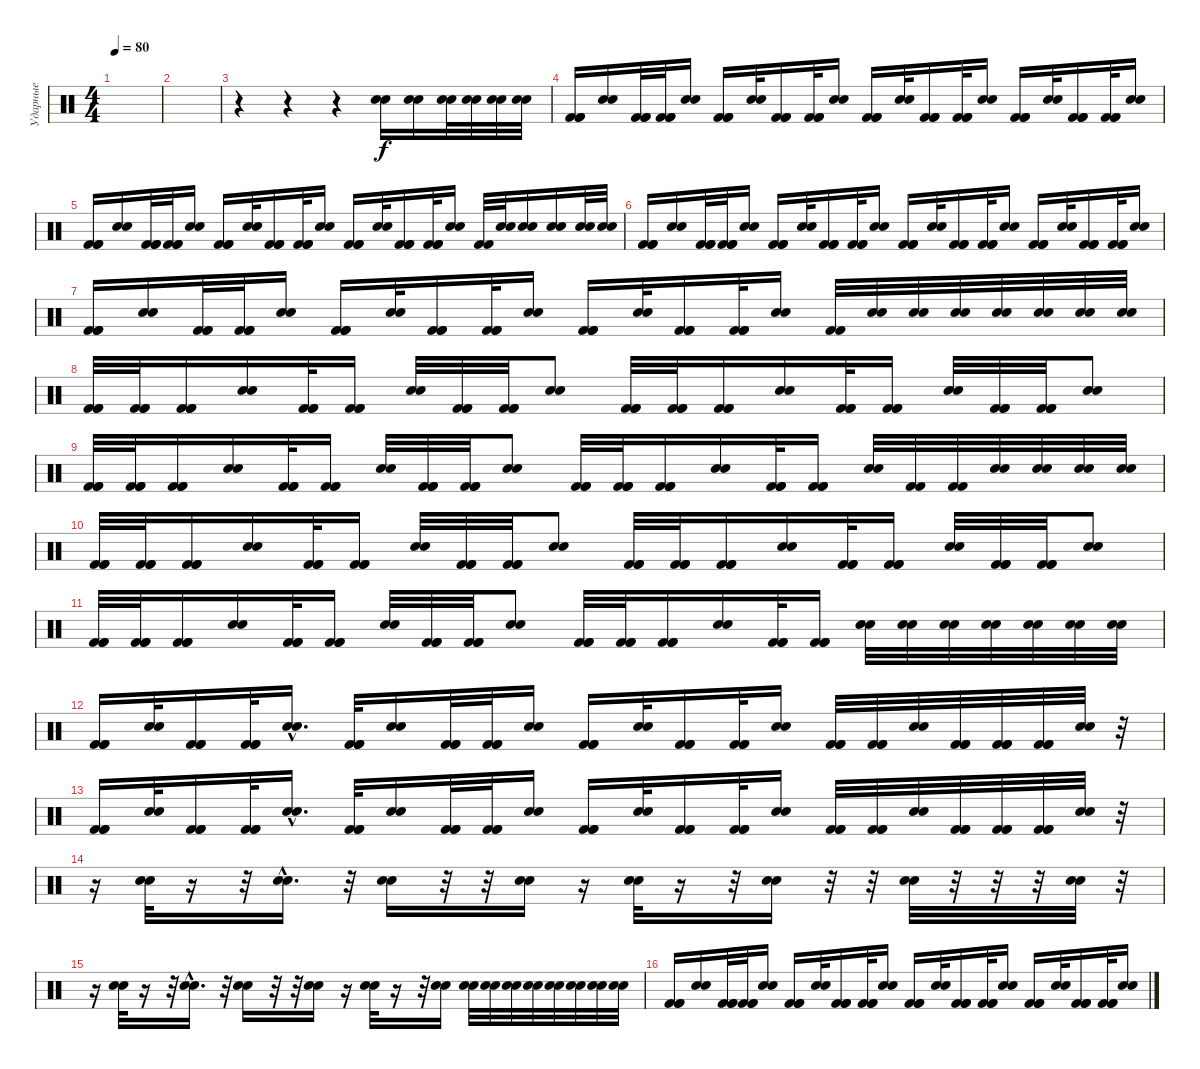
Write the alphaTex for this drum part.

\track ("Ударные" "Ударные") {instrument percussion}
\staff {score}
\articulation defaults
\ts (4 4)
\tempo 80
\clef neutral
\ks c
|
|
r.4 r.4 r.4 ("Snare (hit) 2" "Snare (hit) 2").16 ("Snare (hit) 2" "Snare (hit) 2").16 ("Snare (hit) 2" "Snare (hit) 2").32 ("Snare (hit) 2" "Snare (hit) 2").32 ("Snare (hit) 2" "Snare (hit) 2").32 ("Snare (hit) 2" "Snare (hit) 2").32 |
("Kick (hit) 2" "Kick (hit) 2" "Kick (hit) 2").16 ("Snare (hit) 2" "Snare (hit) 2").16 ("Kick (hit) 2" "Kick (hit) 2" "Kick (hit) 2").32 ("Kick (hit) 2" "Kick (hit) 2" "Kick (hit) 2").32 ("Snare (hit) 2" "Snare (hit) 2").16 ("Kick (hit) 2" "Kick (hit) 2" "Kick (hit) 2").16 ("Snare (hit) 2" "Snare (hit) 2").32 ("Kick (hit) 2" "Kick (hit) 2" "Kick (hit) 2").16 ("Kick (hit) 2" "Kick (hit) 2" "Kick (hit) 2").32 ("Snare (hit) 2" "Snare (hit) 2").16 ("Kick (hit) 2" "Kick (hit) 2" "Kick (hit) 2").16 ("Snare (hit) 2" "Snare (hit) 2").32 ("Kick (hit) 2" "Kick (hit) 2" "Kick (hit) 2").16 ("Kick (hit) 2" "Kick (hit) 2" "Kick (hit) 2").32 ("Snare (hit) 2" "Snare (hit) 2").16 ("Kick (hit) 2" "Kick (hit) 2" "Kick (hit) 2").16 ("Snare (hit) 2" "Snare (hit) 2").32 ("Kick (hit) 2" "Kick (hit) 2" "Kick (hit) 2").16 ("Kick (hit) 2" "Kick (hit) 2" "Kick (hit) 2").32 ("Snare (hit) 2" "Snare (hit) 2").16 |
("Kick (hit) 2" "Kick (hit) 2" "Kick (hit) 2").16 ("Snare (hit) 2" "Snare (hit) 2").16 ("Kick (hit) 2" "Kick (hit) 2" "Kick (hit) 2").32 ("Kick (hit) 2" "Kick (hit) 2" "Kick (hit) 2").32 ("Snare (hit) 2" "Snare (hit) 2").16 ("Kick (hit) 2" "Kick (hit) 2" "Kick (hit) 2").16 ("Snare (hit) 2" "Snare (hit) 2").32 ("Kick (hit) 2" "Kick (hit) 2" "Kick (hit) 2").16 ("Kick (hit) 2" "Kick (hit) 2" "Kick (hit) 2").32 ("Snare (hit) 2" "Snare (hit) 2").16 ("Kick (hit) 2" "Kick (hit) 2" "Kick (hit) 2").16 ("Snare (hit) 2" "Snare (hit) 2").32 ("Kick (hit) 2" "Kick (hit) 2" "Kick (hit) 2").16 ("Kick (hit) 2" "Kick (hit) 2" "Kick (hit) 2").32 ("Snare (hit) 2" "Snare (hit) 2").16 ("Kick (hit) 2" "Kick (hit) 2").32 ("Snare (hit) 2" "Snare (hit) 2").32 ("Snare (hit) 2" "Snare (hit) 2").16 ("Snare (hit) 2" "Snare (hit) 2").16 ("Snare (hit) 2" "Snare (hit) 2").32 ("Snare (hit) 2" "Snare (hit) 2").32 |
("Kick (hit) 2" "Kick (hit) 2" "Kick (hit) 2").16 ("Snare (hit) 2" "Snare (hit) 2").16 ("Kick (hit) 2" "Kick (hit) 2" "Kick (hit) 2").32 ("Kick (hit) 2" "Kick (hit) 2" "Kick (hit) 2").32 ("Snare (hit) 2" "Snare (hit) 2").16 ("Kick (hit) 2" "Kick (hit) 2" "Kick (hit) 2").16 ("Snare (hit) 2" "Snare (hit) 2").32 ("Kick (hit) 2" "Kick (hit) 2" "Kick (hit) 2").16 ("Kick (hit) 2" "Kick (hit) 2" "Kick (hit) 2").32 ("Snare (hit) 2" "Snare (hit) 2").16 ("Kick (hit) 2" "Kick (hit) 2" "Kick (hit) 2").16 ("Snare (hit) 2" "Snare (hit) 2").32 ("Kick (hit) 2" "Kick (hit) 2" "Kick (hit) 2").16 ("Kick (hit) 2" "Kick (hit) 2" "Kick (hit) 2").32 ("Snare (hit) 2" "Snare (hit) 2").16 ("Kick (hit) 2" "Kick (hit) 2" "Kick (hit) 2").16 ("Snare (hit) 2" "Snare (hit) 2").32 ("Kick (hit) 2" "Kick (hit) 2" "Kick (hit) 2").16 ("Kick (hit) 2" "Kick (hit) 2" "Kick (hit) 2").32 ("Snare (hit) 2" "Snare (hit) 2").16 |
("Kick (hit) 2" "Kick (hit) 2" "Kick (hit) 2").16 ("Snare (hit) 2" "Snare (hit) 2").16 ("Kick (hit) 2" "Kick (hit) 2" "Kick (hit) 2").32 ("Kick (hit) 2" "Kick (hit) 2" "Kick (hit) 2").32 ("Snare (hit) 2" "Snare (hit) 2").16 ("Kick (hit) 2" "Kick (hit) 2" "Kick (hit) 2").16 ("Snare (hit) 2" "Snare (hit) 2").32 ("Kick (hit) 2" "Kick (hit) 2" "Kick (hit) 2").16 ("Kick (hit) 2" "Kick (hit) 2" "Kick (hit) 2").32 ("Snare (hit) 2" "Snare (hit) 2").16 ("Kick (hit) 2" "Kick (hit) 2" "Kick (hit) 2").16 ("Snare (hit) 2" "Snare (hit) 2").32 ("Kick (hit) 2" "Kick (hit) 2" "Kick (hit) 2").16 ("Kick (hit) 2" "Kick (hit) 2" "Kick (hit) 2").32 ("Snare (hit) 2" "Snare (hit) 2").16 ("Kick (hit) 2" "Kick (hit) 2").32 ("Snare (hit) 2" "Snare (hit) 2").32 ("Snare (hit) 2" "Snare (hit) 2").32 ("Snare (hit) 2" "Snare (hit) 2").32 ("Snare (hit) 2" "Snare (hit) 2").32 ("Snare (hit) 2" "Snare (hit) 2").32 ("Snare (hit) 2" "Snare (hit) 2").32 ("Snare (hit) 2" "Snare (hit) 2").32 |
("Kick (hit) 2" "Kick (hit) 2" "Kick (hit) 2").32 ("Kick (hit) 2" "Kick (hit) 2" "Kick (hit) 2").32 ("Kick (hit) 2" "Kick (hit) 2" "Kick (hit) 2").16 ("Snare (hit) 2" "Snare (hit) 2").16 ("Kick (hit) 2" "Kick (hit) 2" "Kick (hit) 2").32 ("Kick (hit) 2" "Kick (hit) 2" "Kick (hit) 2").16 ("Snare (hit) 2" "Snare (hit) 2").32 ("Kick (hit) 2" "Kick (hit) 2" "Kick (hit) 2").32 ("Kick (hit) 2" "Kick (hit) 2" "Kick (hit) 2").32 ("Snare (hit) 2" "Snare (hit) 2").8 ("Kick (hit) 2" "Kick (hit) 2" "Kick (hit) 2").32 ("Kick (hit) 2" "Kick (hit) 2" "Kick (hit) 2").32 ("Kick (hit) 2" "Kick (hit) 2" "Kick (hit) 2").16 ("Snare (hit) 2" "Snare (hit) 2").16 ("Kick (hit) 2" "Kick (hit) 2" "Kick (hit) 2").32 ("Kick (hit) 2" "Kick (hit) 2" "Kick (hit) 2").16 ("Snare (hit) 2" "Snare (hit) 2").32 ("Kick (hit) 2" "Kick (hit) 2" "Kick (hit) 2").32 ("Kick (hit) 2" "Kick (hit) 2" "Kick (hit) 2").32 ("Snare (hit) 2" "Snare (hit) 2").8 |
("Kick (hit) 2" "Kick (hit) 2" "Kick (hit) 2").32 ("Kick (hit) 2" "Kick (hit) 2" "Kick (hit) 2").32 ("Kick (hit) 2" "Kick (hit) 2" "Kick (hit) 2").16 ("Snare (hit) 2" "Snare (hit) 2").16 ("Kick (hit) 2" "Kick (hit) 2" "Kick (hit) 2").32 ("Kick (hit) 2" "Kick (hit) 2" "Kick (hit) 2").16 ("Snare (hit) 2" "Snare (hit) 2").32 ("Kick (hit) 2" "Kick (hit) 2" "Kick (hit) 2").32 ("Kick (hit) 2" "Kick (hit) 2" "Kick (hit) 2").32 ("Snare (hit) 2" "Snare (hit) 2").8 ("Kick (hit) 2" "Kick (hit) 2" "Kick (hit) 2").32 ("Kick (hit) 2" "Kick (hit) 2" "Kick (hit) 2").32 ("Kick (hit) 2" "Kick (hit) 2" "Kick (hit) 2").16 ("Snare (hit) 2" "Snare (hit) 2").16 ("Kick (hit) 2" "Kick (hit) 2" "Kick (hit) 2").32 ("Kick (hit) 2" "Kick (hit) 2" "Kick (hit) 2").16 ("Snare (hit) 2" "Snare (hit) 2").32 ("Kick (hit) 2" "Kick (hit) 2").32 ("Kick (hit) 2" "Kick (hit) 2").32 ("Snare (hit) 2" "Snare (hit) 2").32 ("Snare (hit) 2" "Snare (hit) 2").32 ("Snare (hit) 2" "Snare (hit) 2").32 ("Snare (hit) 2" "Snare (hit) 2").32 |
("Kick (hit) 2" "Kick (hit) 2" "Kick (hit) 2").32 ("Kick (hit) 2" "Kick (hit) 2" "Kick (hit) 2").32 ("Kick (hit) 2" "Kick (hit) 2" "Kick (hit) 2").16 ("Snare (hit) 2" "Snare (hit) 2").16 ("Kick (hit) 2" "Kick (hit) 2" "Kick (hit) 2").32 ("Kick (hit) 2" "Kick (hit) 2" "Kick (hit) 2").16 ("Snare (hit) 2" "Snare (hit) 2").32 ("Kick (hit) 2" "Kick (hit) 2" "Kick (hit) 2").32 ("Kick (hit) 2" "Kick (hit) 2" "Kick (hit) 2").32 ("Snare (hit) 2" "Snare (hit) 2").8 ("Kick (hit) 2" "Kick (hit) 2" "Kick (hit) 2").32 ("Kick (hit) 2" "Kick (hit) 2" "Kick (hit) 2").32 ("Kick (hit) 2" "Kick (hit) 2" "Kick (hit) 2").16 ("Snare (hit) 2" "Snare (hit) 2").16 ("Kick (hit) 2" "Kick (hit) 2" "Kick (hit) 2").32 ("Kick (hit) 2" "Kick (hit) 2" "Kick (hit) 2").16 ("Snare (hit) 2" "Snare (hit) 2").32 ("Kick (hit) 2" "Kick (hit) 2" "Kick (hit) 2").32 ("Kick (hit) 2" "Kick (hit) 2" "Kick (hit) 2").32 ("Snare (hit) 2" "Snare (hit) 2").8 |
("Kick (hit) 2" "Kick (hit) 2" "Kick (hit) 2").32 ("Kick (hit) 2" "Kick (hit) 2" "Kick (hit) 2").32 ("Kick (hit) 2" "Kick (hit) 2" "Kick (hit) 2").16 ("Snare (hit) 2" "Snare (hit) 2").16 ("Kick (hit) 2" "Kick (hit) 2" "Kick (hit) 2").32 ("Kick (hit) 2" "Kick (hit) 2" "Kick (hit) 2").16 ("Snare (hit) 2" "Snare (hit) 2").32 ("Kick (hit) 2" "Kick (hit) 2" "Kick (hit) 2").32 ("Kick (hit) 2" "Kick (hit) 2" "Kick (hit) 2").32 ("Snare (hit) 2" "Snare (hit) 2").8 ("Kick (hit) 2" "Kick (hit) 2" "Kick (hit) 2").32 ("Kick (hit) 2" "Kick (hit) 2" "Kick (hit) 2").32 ("Kick (hit) 2" "Kick (hit) 2" "Kick (hit) 2").16 ("Snare (hit) 2" "Snare (hit) 2").16 ("Kick (hit) 2" "Kick (hit) 2" "Kick (hit) 2").32 ("Kick (hit) 2" "Kick (hit) 2" "Kick (hit) 2").16 ("Snare (hit) 2" "Snare (hit) 2").32 ("Snare (hit) 2" "Snare (hit) 2").32 ("Snare (hit) 2" "Snare (hit) 2").32 ("Snare (hit) 2" "Snare (hit) 2").32 ("Snare (hit) 2" "Snare (hit) 2").32 ("Snare (hit) 2" "Snare (hit) 2").32 ("Snare (hit) 2" "Snare (hit) 2").32 |
("Kick (hit) 2" "Kick (hit) 2" "Kick (hit) 2").16 ("Snare (hit) 2" "Snare (hit) 2").32 ("Kick (hit) 2" "Kick (hit) 2" "Kick (hit) 2").16 ("Kick (hit) 2" "Kick (hit) 2" "Kick (hit) 2").32 ("Snare (hit) 2"{hac} "Snare (hit) 2"{hac}).16{d} ("Kick (hit) 2" "Kick (hit) 2" "Kick (hit) 2").32 ("Snare (hit) 2" "Snare (hit) 2").16 ("Kick (hit) 2" "Kick (hit) 2" "Kick (hit) 2").32 ("Kick (hit) 2" "Kick (hit) 2" "Kick (hit) 2").32 ("Snare (hit) 2" "Snare (hit) 2").16 ("Kick (hit) 2" "Kick (hit) 2" "Kick (hit) 2").16 ("Snare (hit) 2" "Snare (hit) 2").32 ("Kick (hit) 2" "Kick (hit) 2" "Kick (hit) 2").16 ("Kick (hit) 2" "Kick (hit) 2" "Kick (hit) 2").32 ("Snare (hit) 2" "Snare (hit) 2").16 ("Kick (hit) 2" "Kick (hit) 2" "Kick (hit) 2").32 ("Kick (hit) 2" "Kick (hit) 2" "Kick (hit) 2").32 ("Snare (hit) 2" "Snare (hit) 2").32 ("Kick (hit) 2" "Kick (hit) 2" "Kick (hit) 2").32 ("Kick (hit) 2" "Kick (hit) 2" "Kick (hit) 2").32 ("Kick (hit) 2" "Kick (hit) 2" "Kick (hit) 2").32 ("Snare (hit) 2" "Snare (hit) 2").32 r.32 |
("Kick (hit) 2" "Kick (hit) 2" "Kick (hit) 2").16 ("Snare (hit) 2" "Snare (hit) 2").32 ("Kick (hit) 2" "Kick (hit) 2" "Kick (hit) 2").16 ("Kick (hit) 2" "Kick (hit) 2" "Kick (hit) 2").32 ("Snare (hit) 2"{hac} "Snare (hit) 2"{hac}).16{d} ("Kick (hit) 2" "Kick (hit) 2" "Kick (hit) 2").32 ("Snare (hit) 2" "Snare (hit) 2").16 ("Kick (hit) 2" "Kick (hit) 2" "Kick (hit) 2").32 ("Kick (hit) 2" "Kick (hit) 2" "Kick (hit) 2").32 ("Snare (hit) 2" "Snare (hit) 2").16 ("Kick (hit) 2" "Kick (hit) 2" "Kick (hit) 2").16 ("Snare (hit) 2" "Snare (hit) 2").32 ("Kick (hit) 2" "Kick (hit) 2" "Kick (hit) 2").16 ("Kick (hit) 2" "Kick (hit) 2" "Kick (hit) 2").32 ("Snare (hit) 2" "Snare (hit) 2").16 ("Kick (hit) 2" "Kick (hit) 2" "Kick (hit) 2").32 ("Kick (hit) 2" "Kick (hit) 2" "Kick (hit) 2").32 ("Snare (hit) 2" "Snare (hit) 2").32 ("Kick (hit) 2" "Kick (hit) 2" "Kick (hit) 2").32 ("Kick (hit) 2" "Kick (hit) 2" "Kick (hit) 2").32 ("Kick (hit) 2" "Kick (hit) 2" "Kick (hit) 2").32 ("Snare (hit) 2" "Snare (hit) 2").32 r.32 |
r.16 ("Snare (hit) 2" "Snare (hit) 2").32 r.16 r.32 ("Snare (hit) 2"{hac} "Snare (hit) 2"{hac}).16{d} r.32 ("Snare (hit) 2" "Snare (hit) 2").16 r.32 r.32 ("Snare (hit) 2" "Snare (hit) 2").16 r.16 ("Snare (hit) 2" "Snare (hit) 2").32 r.16 r.32 ("Snare (hit) 2" "Snare (hit) 2").16 r.32 r.32 ("Snare (hit) 2" "Snare (hit) 2").32 r.32 r.32 r.32 ("Snare (hit) 2" "Snare (hit) 2").32 r.32 |
r.16 ("Snare (hit) 2" "Snare (hit) 2").32 r.16 r.32 ("Snare (hit) 2"{hac} "Snare (hit) 2"{hac}).16{d} r.32 ("Snare (hit) 2" "Snare (hit) 2").16 r.32 r.32 ("Snare (hit) 2" "Snare (hit) 2").16 r.16 ("Snare (hit) 2" "Snare (hit) 2").32 r.16 r.32 ("Snare (hit) 2" "Snare (hit) 2").16 ("Snare (hit) 2" "Snare (hit) 2").32 ("Snare (hit) 2" "Snare (hit) 2").32 ("Snare (hit) 2" "Snare (hit) 2").32 ("Snare (hit) 2" "Snare (hit) 2").32 ("Snare (hit) 2" "Snare (hit) 2").32 ("Snare (hit) 2" "Snare (hit) 2").32 ("Snare (hit) 2" "Snare (hit) 2").32 ("Snare (hit) 2" "Snare (hit) 2").32 |
("Kick (hit) 2" "Kick (hit) 2" "Kick (hit) 2").16 ("Snare (hit) 2" "Snare (hit) 2").16 ("Kick (hit) 2" "Kick (hit) 2" "Kick (hit) 2").32 ("Kick (hit) 2" "Kick (hit) 2" "Kick (hit) 2").32 ("Snare (hit) 2" "Snare (hit) 2").16 ("Kick (hit) 2" "Kick (hit) 2" "Kick (hit) 2").16 ("Snare (hit) 2" "Snare (hit) 2").32 ("Kick (hit) 2" "Kick (hit) 2" "Kick (hit) 2").16 ("Kick (hit) 2" "Kick (hit) 2" "Kick (hit) 2").32 ("Snare (hit) 2" "Snare (hit) 2").16 ("Kick (hit) 2" "Kick (hit) 2" "Kick (hit) 2").16 ("Snare (hit) 2" "Snare (hit) 2").32 ("Kick (hit) 2" "Kick (hit) 2" "Kick (hit) 2").16 ("Kick (hit) 2" "Kick (hit) 2" "Kick (hit) 2").32 ("Snare (hit) 2" "Snare (hit) 2").16 ("Kick (hit) 2" "Kick (hit) 2" "Kick (hit) 2").16 ("Snare (hit) 2" "Snare (hit) 2").32 ("Kick (hit) 2" "Kick (hit) 2" "Kick (hit) 2").16 ("Kick (hit) 2" "Kick (hit) 2" "Kick (hit) 2").32 ("Snare (hit) 2" "Snare (hit) 2").16
